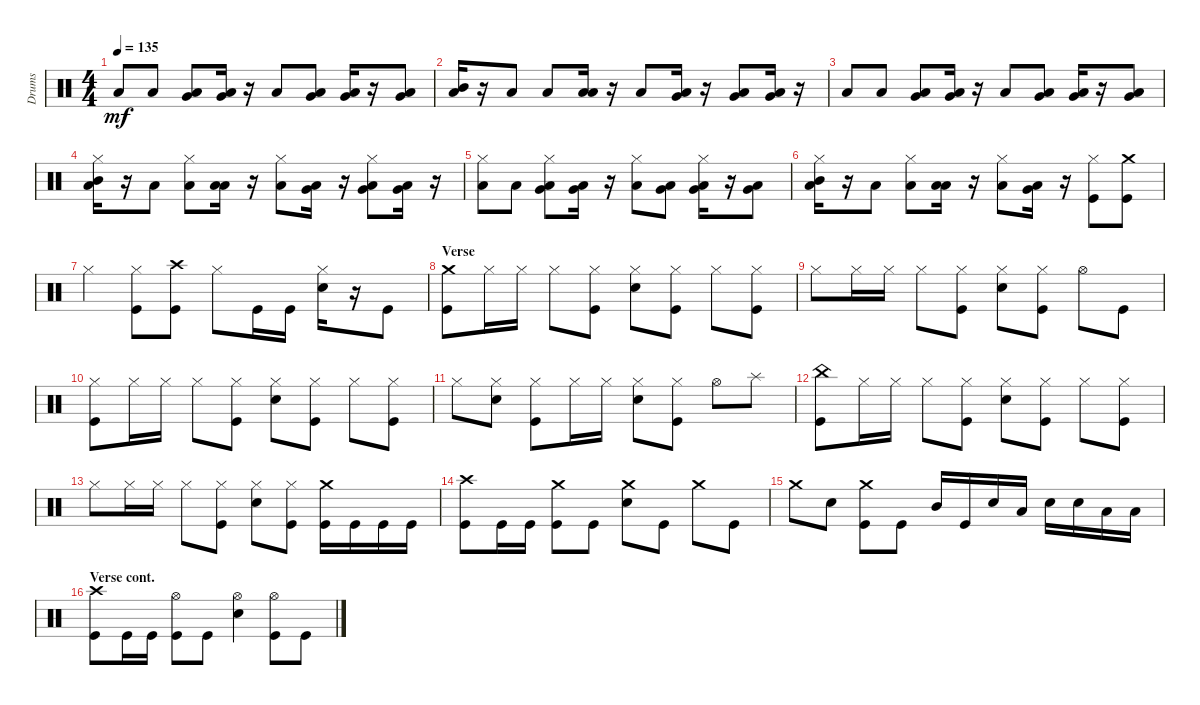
\track ("Drums" "Drums") {instrument percussion}
\staff {score}
\articulation defaults
\ts (4 4)
\tempo 135
\clef neutral
\ks aminor "Low Floor Tom (hit)".8{dy mf} "Low Floor Tom (hit)".8
("Very Low Tom (hit)" "Low Floor Tom (hit)").8 ("Very Low Tom (hit)" "Low Floor Tom (hit)").16 r.16 "Low Floor Tom (hit)".8 ("Low Floor Tom (hit)" "Very Low Tom (hit)").8 ("Low Floor Tom (hit)" "Very Low Tom (hit)").16 r.16 ("Low Floor Tom (hit)" "Very Low Tom (hit)").8 |
("Mid Tom (hit)" "Low Floor Tom (hit)").16 r.16 "Low Floor Tom (hit)".8 "Low Floor Tom (hit)".8 ("Low Floor Tom (hit)" "Low Tom (hit)").16 r.16 "Low Floor Tom (hit)".8 ("Very Low Tom (hit)" "Low Floor Tom (hit)").16 r.16 ("Very Low Tom (hit)" "Low Floor Tom (hit)").8 ("Very Low Tom (hit)" "Low Floor Tom (hit)").16 r.16 |
"Low Floor Tom (hit)".8 "Low Floor Tom (hit)".8 ("Low Floor Tom (hit)" "Very Low Tom (hit)").8 ("Low Floor Tom (hit)" "Very Low Tom (hit)").16 r.16 "Low Floor Tom (hit)".8 ("Very Low Tom (hit)" "Low Floor Tom (hit)").8 ("Very Low Tom (hit)" "Low Floor Tom (hit)").16 r.16 ("Low Floor Tom (hit)" "Very Low Tom (hit)").8 |
("Low Floor Tom (hit)" "Hi-Hat (closed)" "Mid Tom (hit)").16 r.16 "Low Floor Tom (hit)".8 ("Low Floor Tom (hit)" "Hi-Hat (closed)").8 ("Low Floor Tom (hit)" "Low Tom (hit)").16 r.16 ("Low Floor Tom (hit)" "Hi-Hat (closed)").8 ("Very Low Tom (hit)" "Low Floor Tom (hit)").16 r.16 ("Low Floor Tom (hit)" "Very Low Tom (hit)" "Hi-Hat (closed)").8 ("Low Floor Tom (hit)" "Very Low Tom (hit)").16 r.16 |
("Low Floor Tom (hit)" "Hi-Hat (closed)").8 "Low Floor Tom (hit)".8 ("Very Low Tom (hit)" "Hi-Hat (closed)" "Low Floor Tom (hit)").8 ("Very Low Tom (hit)" "Low Floor Tom (hit)").16 r.16 ("Low Floor Tom (hit)" "Hi-Hat (closed)").8 ("Very Low Tom (hit)" "Low Floor Tom (hit)").8 ("Low Floor Tom (hit)" "Very Low Tom (hit)" "Hi-Hat (closed)").16 r.16 ("Low Floor Tom (hit)" "Very Low Tom (hit)").8 |
("Hi-Hat (closed)" "Mid Tom (hit)" "Low Floor Tom (hit)").16 r.16 "Low Floor Tom (hit)".8 ("Hi-Hat (closed)" "Low Floor Tom (hit)").8 ("Low Floor Tom (hit)" "Low Tom (hit)").16 r.16 ("Low Floor Tom (hit)" "Hi-Hat (closed)").8 ("Very Low Tom (hit)" "Low Floor Tom (hit)").16 r.16 ("Hi-Hat (closed)" "Kick (hit)").8 ("Crash medium (hit)" "Kick (hit)").8 |
"Hi-Hat (closed)".4 ("Kick (hit)" "Hi-Hat (closed)").8 ("Crash high (hit)" "Kick (hit)").8 "Hi-Hat (closed)".8 "Kick (hit)".16 "Kick (hit)".16 ("Hi-Hat (closed)" "Snare (hit) 2").16 r.16 "Kick (hit)".8 |
\section ("" "Verse")
("Crash medium (hit)" "Kick (hit)").8 "Hi-Hat (closed)".16 "Hi-Hat (closed)".16 "Hi-Hat (closed)".8 ("Kick (hit)" "Hi-Hat (closed)").8 ("Hi-Hat (closed)" "Snare (hit) 2").8 ("Hi-Hat (closed)" "Kick (hit)").8 "Hi-Hat (closed)".8 ("Hi-Hat (closed)" "Kick (hit)").8 |
"Hi-Hat (closed)".8 "Hi-Hat (closed)".16 "Hi-Hat (closed)".16 "Hi-Hat (closed)".8 ("Kick (hit)" "Hi-Hat (closed)").8 ("Snare (hit) 2" "Hi-Hat (closed)").8 ("Kick (hit)" "Hi-Hat (closed)").8 "Hi-Hat (open)".8 "Kick (hit)".8 |
("Hi-Hat (closed)" "Kick (hit)").8 "Hi-Hat (closed)".16 "Hi-Hat (closed)".16 "Hi-Hat (closed)".8 ("Hi-Hat (closed)" "Kick (hit)").8 ("Hi-Hat (closed)" "Snare (hit) 2").8 ("Kick (hit)" "Hi-Hat (closed)").8 "Hi-Hat (closed)".8 ("Kick (hit)" "Hi-Hat (closed)").8 |
"Hi-Hat (closed)".8 ("Hi-Hat (closed)" "Snare (hit) 2").8 ("Hi-Hat (closed)" "Kick (hit)").8 "Hi-Hat (closed)".16 "Hi-Hat (closed)".16 ("Hi-Hat (closed)" "Snare (hit) 2").8 ("Kick (hit)" "Hi-Hat (closed)").8 "Hi-Hat (open)".8 "Splash (hit)".8 |
("China (hit)" "Kick (hit)").8 "Hi-Hat (closed)".16 "Hi-Hat (closed)".16 "Hi-Hat (closed)".8 ("Hi-Hat (closed)" "Kick (hit)").8 ("Snare (hit) 2" "Hi-Hat (closed)").8 ("Hi-Hat (closed)" "Kick (hit)").8 "Hi-Hat (closed)".8 ("Kick (hit)" "Hi-Hat (closed)").8 |
"Hi-Hat (closed)".8 "Hi-Hat (closed)".16 "Hi-Hat (closed)".16 "Hi-Hat (closed)".8 ("Hi-Hat (closed)" "Kick (hit)").8 ("Hi-Hat (closed)" "Snare (hit) 2").8 ("Kick (hit)" "Hi-Hat (closed)").8 ("Kick (hit)" "Crash medium (hit)").16 "Kick (hit)".16 "Kick (hit)".16 "Kick (hit)".16 |
("Kick (hit)" "Crash high (hit)").8 "Kick (hit)".16 "Kick (hit)".16 ("Crash medium (hit)" "Kick (hit)").8 "Kick (hit)".8 ("Snare (hit) 2" "Crash medium (hit)").8 "Kick (hit)".8 "Crash medium (hit)".8 "Kick (hit)".8 |
"Crash medium (hit)".8 "Snare (hit) 2".8 ("Kick (hit)" "Crash medium (hit)").8 "Kick (hit)".8 "Mid Tom (hit)".16 "Kick (hit)".16 "Snare (hit) 2".16 "Low Tom (hit)".16 "Snare (hit) 2".16 "Snare (hit) 2".16 "Low Tom (hit)".16 "Low Tom (hit)".16 |
\section ("" "Verse cont.")
("Kick (hit)" "Crash high (hit)").8 "Kick (hit)".16 "Kick (hit)".16 ("Hi-Hat (open)" "Kick (hit)").8 "Kick (hit)".8 ("Hi-Hat (open)" "Snare (hit) 2").4 ("Hi-Hat (open)" "Kick (hit)").8 "Kick (hit)".8
